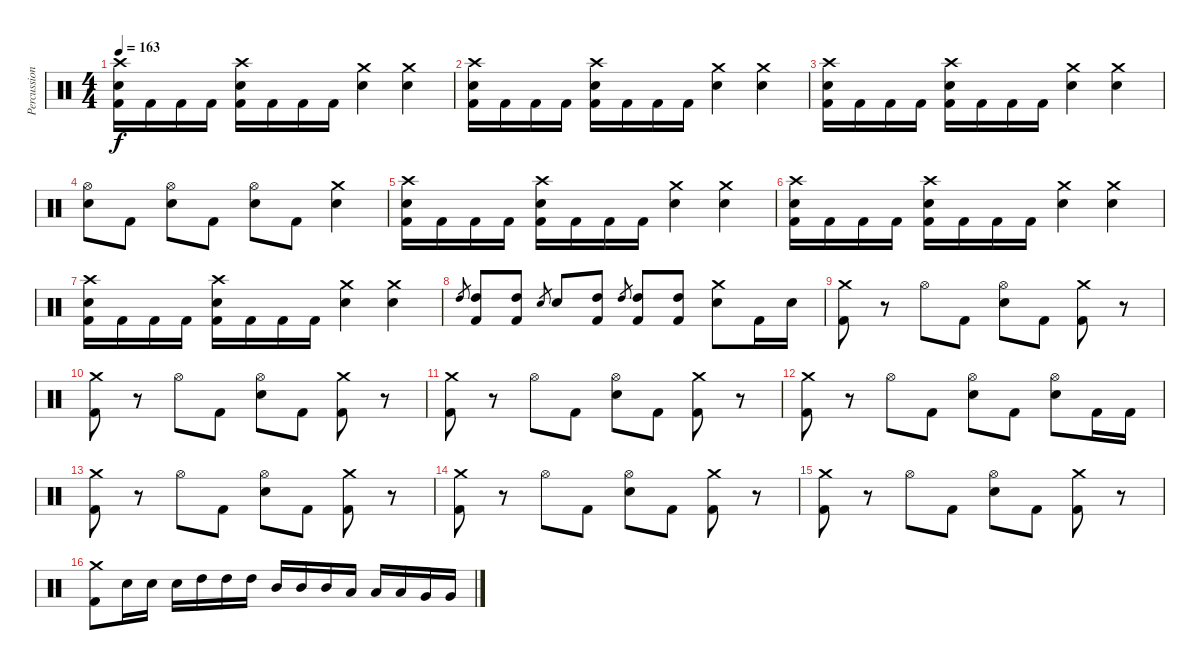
\track ("Percussion" "Percussion") {instrument percussion}
\staff {score}
\articulation defaults
\ts (4 4)
\tempo 163
\clef neutral
\ks c
("Crash high (hit)" "Electric Snare (hit)" "Kick (hit) 2").16{dy f} "Kick (hit) 2".16 "Kick (hit) 2".16 "Kick (hit) 2".16 ("Crash high (hit)" "Electric Snare (hit)" "Kick (hit) 2").16 "Kick (hit) 2".16 "Kick (hit) 2".16 "Kick (hit) 2".16 ("Crash medium (hit)" "Electric Snare (hit)").4 ("Crash medium (hit)" "Electric Snare (hit)").4 |
("Crash high (hit)" "Electric Snare (hit)" "Kick (hit) 2").16 "Kick (hit) 2".16 "Kick (hit) 2".16 "Kick (hit) 2".16 ("Crash high (hit)" "Electric Snare (hit)" "Kick (hit) 2").16 "Kick (hit) 2".16 "Kick (hit) 2".16 "Kick (hit) 2".16 ("Crash medium (hit)" "Electric Snare (hit)").4 ("Crash medium (hit)" "Electric Snare (hit)").4 |
("Crash high (hit)" "Electric Snare (hit)" "Kick (hit) 2").16 "Kick (hit) 2".16 "Kick (hit) 2".16 "Kick (hit) 2".16 ("Crash high (hit)" "Electric Snare (hit)" "Kick (hit) 2").16 "Kick (hit) 2".16 "Kick (hit) 2".16 "Kick (hit) 2".16 ("Crash medium (hit)" "Electric Snare (hit)").4 ("Crash medium (hit)" "Electric Snare (hit)").4 |
("Hi-Hat (open)" "Electric Snare (hit)").8 "Kick (hit) 2".8 ("Hi-Hat (open)" "Electric Snare (hit)").8 "Kick (hit) 2".8 ("Hi-Hat (open)" "Electric Snare (hit)").8 "Kick (hit) 2".8 ("Crash medium (hit)" "Electric Snare (hit)").4 |
("Crash high (hit)" "Electric Snare (hit)" "Kick (hit) 2").16 "Kick (hit) 2".16 "Kick (hit) 2".16 "Kick (hit) 2".16 ("Crash high (hit)" "Electric Snare (hit)" "Kick (hit) 2").16 "Kick (hit) 2".16 "Kick (hit) 2".16 "Kick (hit) 2".16 ("Crash medium (hit)" "Electric Snare (hit)").4 ("Crash medium (hit)" "Electric Snare (hit)").4 |
("Crash high (hit)" "Electric Snare (hit)" "Kick (hit) 2").16 "Kick (hit) 2".16 "Kick (hit) 2".16 "Kick (hit) 2".16 ("Crash high (hit)" "Electric Snare (hit)" "Kick (hit) 2").16 "Kick (hit) 2".16 "Kick (hit) 2".16 "Kick (hit) 2".16 ("Crash medium (hit)" "Electric Snare (hit)").4 ("Crash medium (hit)" "Electric Snare (hit)").4 |
("Crash high (hit)" "Electric Snare (hit)" "Kick (hit) 2").16 "Kick (hit) 2".16 "Kick (hit) 2".16 "Kick (hit) 2".16 ("Crash high (hit)" "Electric Snare (hit)" "Kick (hit) 2").16 "Kick (hit) 2".16 "Kick (hit) 2".16 "Kick (hit) 2".16 ("Crash medium (hit)" "Electric Snare (hit)").4 ("Crash medium (hit)" "Electric Snare (hit)").4 |
"High Tom (hit)".8{gr} ("High Tom (hit)" "Kick (hit) 2").8 ("High Tom (hit)" "Kick (hit) 2").8 "Electric Snare (hit)".8{gr} "Electric Snare (hit)".8 ("High Tom (hit)" "Kick (hit) 2").8 "High Tom (hit)".8{gr} ("High Tom (hit)" "Kick (hit) 2").8 ("High Tom (hit)" "Kick (hit) 2").8 ("Crash medium (hit)" "Electric Snare (hit)").8 "Kick (hit) 2".16 "Electric Snare (hit)".16 |
("Crash medium (hit)" "Kick (hit) 2").8 r.8 "Hi-Hat (open)".8 "Kick (hit) 2".8 ("Hi-Hat (open)" "Electric Snare (hit)").8 "Kick (hit) 2".8 ("Crash medium (hit)" "Kick (hit) 2").8 r.8 |
("Crash medium (hit)" "Kick (hit) 2").8 r.8 "Hi-Hat (open)".8 "Kick (hit) 2".8 ("Hi-Hat (open)" "Electric Snare (hit)").8 "Kick (hit) 2".8 ("Crash medium (hit)" "Kick (hit) 2").8 r.8 |
("Crash medium (hit)" "Kick (hit) 2").8 r.8 "Hi-Hat (open)".8 "Kick (hit) 2".8 ("Hi-Hat (open)" "Electric Snare (hit)").8 "Kick (hit) 2".8 ("Crash medium (hit)" "Kick (hit) 2").8 r.8 |
("Crash medium (hit)" "Kick (hit) 2").8 r.8 "Hi-Hat (open)".8 "Kick (hit) 2".8 ("Hi-Hat (open)" "Electric Snare (hit)").8 "Kick (hit) 2".8 ("Hi-Hat (open)" "Electric Snare (hit)").8 "Kick (hit) 2".16 "Kick (hit) 2".16 |
("Crash medium (hit)" "Kick (hit) 2").8 r.8 "Hi-Hat (open)".8 "Kick (hit) 2".8 ("Hi-Hat (open)" "Electric Snare (hit)").8 "Kick (hit) 2".8 ("Crash medium (hit)" "Kick (hit) 2").8 r.8 |
("Crash medium (hit)" "Kick (hit) 2").8 r.8 "Hi-Hat (open)".8 "Kick (hit) 2".8 ("Hi-Hat (open)" "Electric Snare (hit)").8 "Kick (hit) 2".8 ("Crash medium (hit)" "Kick (hit) 2").8 r.8 |
("Crash medium (hit)" "Kick (hit) 2").8 r.8 "Hi-Hat (open)".8 "Kick (hit) 2".8 ("Hi-Hat (open)" "Electric Snare (hit)").8 "Kick (hit) 2".8 ("Crash medium (hit)" "Kick (hit) 2").8 r.8 |
("Crash medium (hit)" "Kick (hit) 2").8 "Electric Snare (hit)".16 "Electric Snare (hit)".16 "Electric Snare (hit)".16 "High Tom (hit)".16 "High Tom (hit)".16 "High Tom (hit)".16 "Mid Tom (hit)".16 "Mid Tom (hit)".16 "Mid Tom (hit)".16 "Low Tom (hit)".16 "Low Tom (hit)".16 "Low Tom (hit)".16 "Very Low Tom (hit)".16 "Very Low Tom (hit)".16
